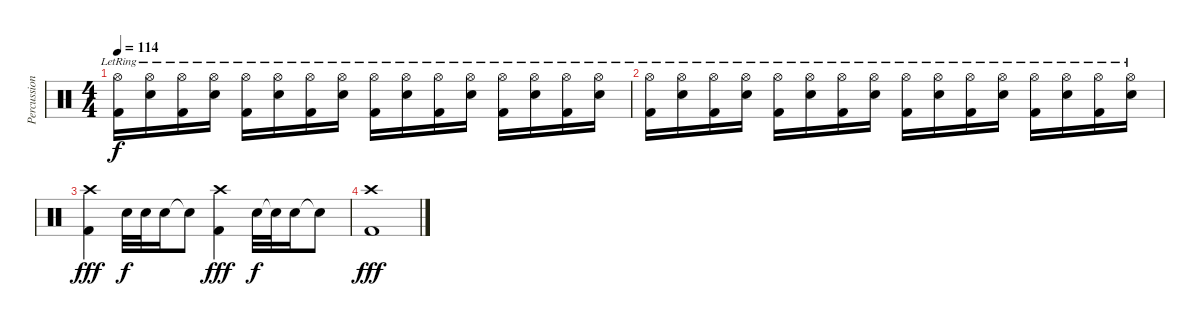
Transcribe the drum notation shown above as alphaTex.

\track ("Percussions" "Percussion") {instrument percussion}
\staff {score}
\articulation defaults
\ts (4 4)
\tempo 114
\clef neutral
\ks c
("Hi-Hat (open)"{lr} "Kick (hit) 2").16{dy f} ("Hi-Hat (open)"{lr} "Electric Snare (hit)").16 ("Hi-Hat (open)"{lr} "Kick (hit) 2").16 ("Hi-Hat (open)"{lr} "Electric Snare (hit)").16 ("Hi-Hat (open)"{lr} "Kick (hit) 2").16 ("Hi-Hat (open)"{lr} "Electric Snare (hit)").16 ("Hi-Hat (open)"{lr} "Kick (hit) 2").16 ("Hi-Hat (open)"{lr} "Electric Snare (hit)").16 ("Hi-Hat (open)"{lr} "Kick (hit) 2").16 ("Hi-Hat (open)"{lr} "Electric Snare (hit)").16 ("Hi-Hat (open)"{lr} "Kick (hit) 2").16 ("Hi-Hat (open)"{lr} "Electric Snare (hit)").16 ("Hi-Hat (open)"{lr} "Kick (hit) 2").16 ("Hi-Hat (open)"{lr} "Electric Snare (hit)").16 ("Hi-Hat (open)"{lr} "Kick (hit) 2").16 ("Hi-Hat (open)"{lr} "Electric Snare (hit)").16 |
("Hi-Hat (open)"{lr} "Kick (hit) 2").16 ("Hi-Hat (open)"{lr} "Electric Snare (hit)").16 ("Hi-Hat (open)"{lr} "Kick (hit) 2").16 ("Hi-Hat (open)"{lr} "Electric Snare (hit)").16 ("Hi-Hat (open)"{lr} "Kick (hit) 2").16 ("Hi-Hat (open)"{lr} "Electric Snare (hit)").16 ("Hi-Hat (open)"{lr} "Kick (hit) 2").16 ("Hi-Hat (open)"{lr} "Electric Snare (hit)").16 ("Hi-Hat (open)"{lr} "Kick (hit) 2").16 ("Hi-Hat (open)"{lr} "Electric Snare (hit)").16 ("Hi-Hat (open)"{lr} "Kick (hit) 2").16 ("Hi-Hat (open)"{lr} "Electric Snare (hit)").16 ("Hi-Hat (open)"{lr} "Kick (hit) 2").16 ("Hi-Hat (open)"{lr} "Electric Snare (hit)").16 ("Hi-Hat (open)"{lr} "Kick (hit) 2").16 ("Hi-Hat (open)"{lr} "Electric Snare (hit)").16 |
("Crash high (hit)" "Kick (hit) 2").4{dy fff} "Electric Snare (hit)".32{dy f} "Electric Snare (hit)".32 "Electric Snare (hit)".16 "Snare (hit)"{t}.8 ("Crash high (hit)" "Kick (hit) 2").4{dy fff} "Electric Snare (hit)".32{dy f} "Snare (hit)"{t}.32 "Electric Snare (hit)".16 "Snare (hit)"{t}.8 |
("Crash high (hit)" "Kick (hit) 2").1{dy fff}
